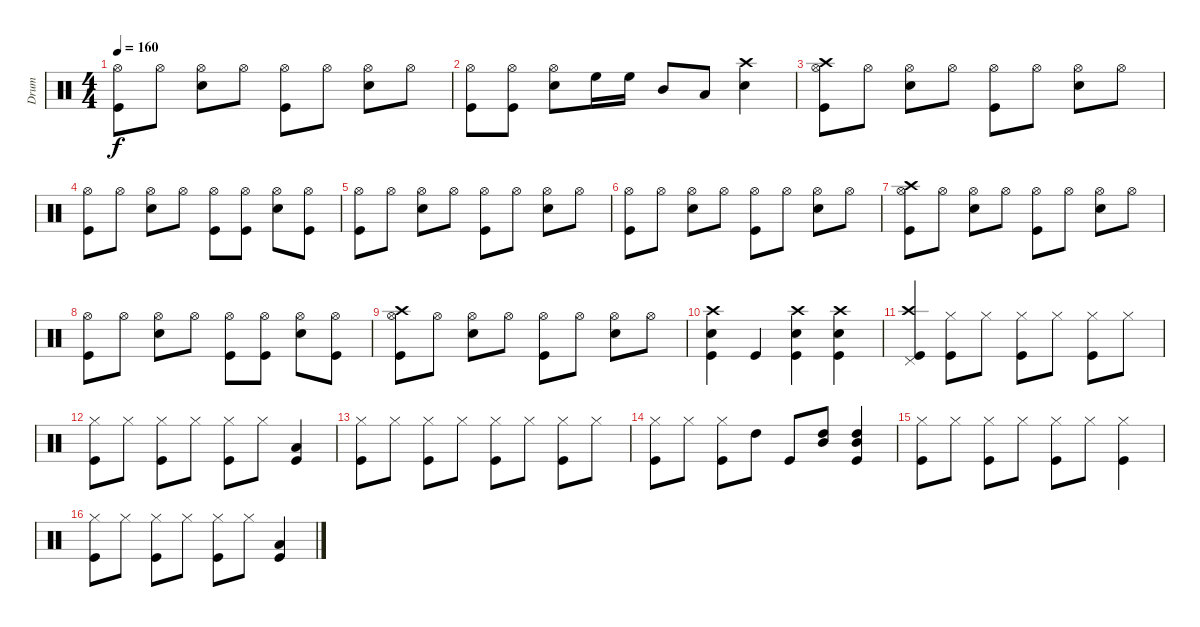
\track ("Drum" "Drum") {instrument percussion}
\staff {score}
\articulation defaults
\ts (4 4)
\tempo 160
\clef neutral
\ks c
("Hi-Hat (open)" "Kick (hit)").8{dy f} "Hi-Hat (open)".8 ("Hi-Hat (open)" "Snare (hit) 2").8 "Hi-Hat (open)".8 ("Hi-Hat (open)" "Kick (hit)").8 "Hi-Hat (open)".8 ("Hi-Hat (open)" "Snare (hit) 2").8 "Hi-Hat (open)".8 |
("Hi-Hat (open)" "Kick (hit)").8 ("Hi-Hat (open)" "Kick (hit)").8 ("Hi-Hat (open)" "Snare (hit) 2").8 "High Floor Tom (hit)".16 "High Floor Tom (hit)".16 "Mid Tom (hit)".8 "Low Tom (hit)".8 ("Crash high (hit)" "Snare (hit) 2").4 |
("Hi-Hat (open)" "Crash high (hit)" "Kick (hit)").8 "Hi-Hat (open)".8 ("Hi-Hat (open)" "Snare (hit) 2").8 "Hi-Hat (open)".8 ("Hi-Hat (open)" "Kick (hit)").8 "Hi-Hat (open)".8 ("Hi-Hat (open)" "Snare (hit) 2").8 "Hi-Hat (open)".8 |
("Hi-Hat (open)" "Kick (hit)").8 "Hi-Hat (open)".8 ("Hi-Hat (open)" "Snare (hit) 2").8 "Hi-Hat (open)".8 ("Hi-Hat (open)" "Kick (hit)").8 ("Hi-Hat (open)" "Kick (hit)").8 ("Hi-Hat (open)" "Snare (hit) 2").8 ("Hi-Hat (open)" "Kick (hit)").8 |
("Hi-Hat (open)" "Kick (hit)").8 "Hi-Hat (open)".8 ("Hi-Hat (open)" "Snare (hit) 2").8 "Hi-Hat (open)".8 ("Hi-Hat (open)" "Kick (hit)").8 "Hi-Hat (open)".8 ("Hi-Hat (open)" "Snare (hit) 2").8 "Hi-Hat (open)".8 |
("Hi-Hat (open)" "Kick (hit)").8 "Hi-Hat (open)".8 ("Hi-Hat (open)" "Snare (hit) 2").8 "Hi-Hat (open)".8 ("Hi-Hat (open)" "Kick (hit)").8 "Hi-Hat (open)".8 ("Hi-Hat (open)" "Snare (hit) 2").8 "Hi-Hat (open)".8 |
("Hi-Hat (open)" "Crash high (hit)" "Kick (hit)").8 "Hi-Hat (open)".8 ("Hi-Hat (open)" "Snare (hit) 2").8 "Hi-Hat (open)".8 ("Hi-Hat (open)" "Kick (hit)").8 "Hi-Hat (open)".8 ("Hi-Hat (open)" "Snare (hit) 2").8 "Hi-Hat (open)".8 |
("Hi-Hat (open)" "Kick (hit)").8 "Hi-Hat (open)".8 ("Hi-Hat (open)" "Snare (hit) 2").8 "Hi-Hat (open)".8 ("Hi-Hat (open)" "Kick (hit)").8 ("Hi-Hat (open)" "Kick (hit)").8 ("Hi-Hat (open)" "Snare (hit) 2").8 ("Hi-Hat (open)" "Kick (hit)").8 |
("Hi-Hat (open)" "Crash high (hit)" "Kick (hit)").8 "Hi-Hat (open)".8 ("Hi-Hat (open)" "Snare (hit) 2").8 "Hi-Hat (open)".8 ("Hi-Hat (open)" "Kick (hit)").8 "Hi-Hat (open)".8 ("Hi-Hat (open)" "Snare (hit) 2").8 "Hi-Hat (open)".8 |
("Crash high (hit)" "Snare (hit) 2" "Kick (hit)").4 "Kick (hit)".4 ("Crash high (hit)" "Snare (hit) 2" "Kick (hit)").4 ("Crash high (hit)" "Snare (hit) 2" "Kick (hit)").4 |
("Crash high (hit)" "Pedal Hi-Hat (hit)" "Kick (hit)").4 ("Hi-Hat (closed)" "Kick (hit)").8 "Hi-Hat (closed)".8 ("Hi-Hat (closed)" "Kick (hit)").8 "Hi-Hat (closed)".8 ("Hi-Hat (closed)" "Kick (hit)").8 "Hi-Hat (closed)".8 |
("Hi-Hat (closed)" "Kick (hit)").8 "Hi-Hat (closed)".8 ("Hi-Hat (closed)" "Kick (hit)").8 "Hi-Hat (closed)".8 ("Hi-Hat (closed)" "Kick (hit)").8 "Hi-Hat (closed)".8 ("Low Tom (hit)" "Kick (hit)").4 |
("Hi-Hat (closed)" "Kick (hit)").8 "Hi-Hat (closed)".8 ("Hi-Hat (closed)" "Kick (hit)").8 "Hi-Hat (closed)".8 ("Hi-Hat (closed)" "Kick (hit)").8 "Hi-Hat (closed)".8 ("Hi-Hat (closed)" "Kick (hit)").8 "Hi-Hat (closed)".8 |
("Hi-Hat (closed)" "Kick (hit)").8 "Hi-Hat (closed)".8 ("Hi-Hat (closed)" "Kick (hit)").8 "High Tom (hit)".8 "Kick (hit)".8 ("Mid Tom (hit)" "High Tom (hit)").8 ("Mid Tom (hit)" "High Tom (hit)" "Kick (hit)").4 |
("Hi-Hat (closed)" "Kick (hit)").8 "Hi-Hat (closed)".8 ("Hi-Hat (closed)" "Kick (hit)").8 "Hi-Hat (closed)".8 ("Hi-Hat (closed)" "Kick (hit)").8 "Hi-Hat (closed)".8 ("Hi-Hat (closed)" "Kick (hit)").4 |
("Hi-Hat (closed)" "Kick (hit)").8 "Hi-Hat (closed)".8 ("Hi-Hat (closed)" "Kick (hit)").8 "Hi-Hat (closed)".8 ("Hi-Hat (closed)" "Kick (hit)").8 "Hi-Hat (closed)".8 ("Low Tom (hit)" "Kick (hit)").4
